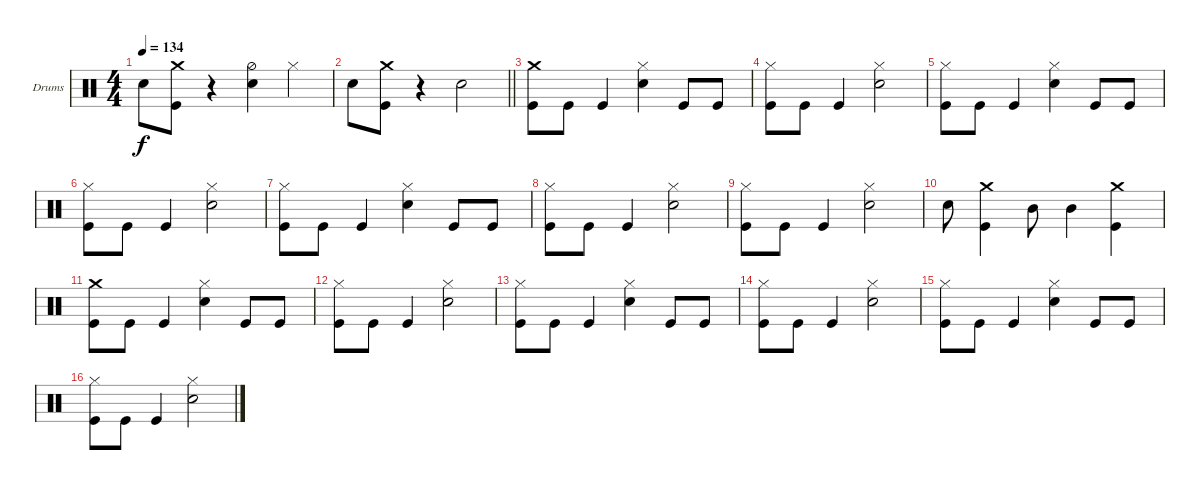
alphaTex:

\defaultSystemsLayout 4
\bracketExtendMode groupsimilarinstruments
\firstSystemTrackNameOrientation horizontal
\otherSystemsTrackNameOrientation horizontal
\track ("Drumkit" "Drums") {instrument percussion}
\staff {score}
\articulation defaults
\ts (4 4)
\tempo 134
\clef neutral
\ks c "Snare (hit) 2".8{dy f}
("Kick (hit)" "Crash medium (hit)").8 r.4 ("Snare (hit) 2" "Hi-Hat (half)").4 "Hi-Hat (closed)".4 |
\barLineRight lightlight "Snare (hit) 2".8
("Kick (hit)" "Crash medium (hit)").8 r.4 "Snare (hit) 2".2 |
("Kick (hit)" "Crash medium (hit)").8 "Kick (hit)".8 "Kick (hit)".4 ("Hi-Hat (closed)" "Snare (hit) 2").4 "Kick (hit)".8 "Kick (hit)".8 |
("Kick (hit)" "Hi-Hat (closed)").8 "Kick (hit)".8 "Kick (hit)".4 ("Snare (hit) 2" "Hi-Hat (closed)").2 |
("Kick (hit)" "Hi-Hat (closed)").8 "Kick (hit)".8 "Kick (hit)".4 ("Hi-Hat (closed)" "Snare (hit) 2").4 "Kick (hit)".8 "Kick (hit)".8 |
("Kick (hit)" "Hi-Hat (closed)").8 "Kick (hit)".8 "Kick (hit)".4 ("Snare (hit) 2" "Hi-Hat (closed)").2 |
("Kick (hit)" "Hi-Hat (closed)").8 "Kick (hit)".8 "Kick (hit)".4 ("Hi-Hat (closed)" "Snare (hit) 2").4 "Kick (hit)".8 "Kick (hit)".8 |
("Kick (hit)" "Hi-Hat (closed)").8 "Kick (hit)".8 "Kick (hit)".4 ("Snare (hit) 2" "Hi-Hat (closed)").2 |
("Kick (hit)" "Hi-Hat (closed)").8 "Kick (hit)".8 "Kick (hit)".4 ("Hi-Hat (closed)" "Snare (hit) 2").2 |
"Snare (hit) 2".8 ("Kick (hit)" "Crash medium (hit)").4 "Mid Tom (hit)".8 "Mid Tom (hit)".4 ("Kick (hit)" "Crash medium (hit)").4 |
("Kick (hit)" "Crash medium (hit)").8 "Kick (hit)".8 "Kick (hit)".4 ("Hi-Hat (closed)" "Snare (hit) 2").4 "Kick (hit)".8 "Kick (hit)".8 |
("Kick (hit)" "Hi-Hat (closed)").8 "Kick (hit)".8 "Kick (hit)".4 ("Snare (hit) 2" "Hi-Hat (closed)").2 |
("Kick (hit)" "Hi-Hat (closed)").8 "Kick (hit)".8 "Kick (hit)".4 ("Hi-Hat (closed)" "Snare (hit) 2").4 "Kick (hit)".8 "Kick (hit)".8 |
("Kick (hit)" "Hi-Hat (closed)").8 "Kick (hit)".8 "Kick (hit)".4 ("Snare (hit) 2" "Hi-Hat (closed)").2 |
("Kick (hit)" "Hi-Hat (closed)").8 "Kick (hit)".8 "Kick (hit)".4 ("Hi-Hat (closed)" "Snare (hit) 2").4 "Kick (hit)".8 "Kick (hit)".8 |
("Kick (hit)" "Hi-Hat (closed)").8 "Kick (hit)".8 "Kick (hit)".4 ("Snare (hit) 2" "Hi-Hat (closed)").2
